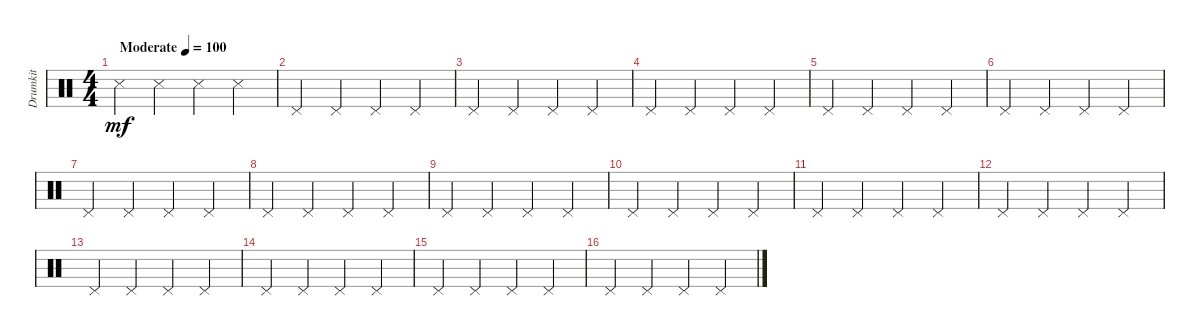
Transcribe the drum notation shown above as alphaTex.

\track ("Drumkit" "Drumkit") {instrument percussion}
\staff {score}
\articulation defaults
\ts (4 4)
\tempo (100 "Moderate")
\clef neutral
\ks c "Snare (side stick) 3".4{dy mf} "Snare (side stick) 3".4 "Snare (side stick) 3".4 "Snare (side stick) 3".4
|
"Pedal Hi-Hat (hit)".4 "Pedal Hi-Hat (hit)".4 "Pedal Hi-Hat (hit)".4 "Pedal Hi-Hat (hit)".4 |
"Pedal Hi-Hat (hit)".4 "Pedal Hi-Hat (hit)".4 "Pedal Hi-Hat (hit)".4 "Pedal Hi-Hat (hit)".4 |
"Pedal Hi-Hat (hit)".4 "Pedal Hi-Hat (hit)".4 "Pedal Hi-Hat (hit)".4 "Pedal Hi-Hat (hit)".4 |
"Pedal Hi-Hat (hit)".4 "Pedal Hi-Hat (hit)".4 "Pedal Hi-Hat (hit)".4 "Pedal Hi-Hat (hit)".4 |
"Pedal Hi-Hat (hit)".4 "Pedal Hi-Hat (hit)".4 "Pedal Hi-Hat (hit)".4 "Pedal Hi-Hat (hit)".4 |
"Pedal Hi-Hat (hit)".4 "Pedal Hi-Hat (hit)".4 "Pedal Hi-Hat (hit)".4 "Pedal Hi-Hat (hit)".4 |
"Pedal Hi-Hat (hit)".4 "Pedal Hi-Hat (hit)".4 "Pedal Hi-Hat (hit)".4 "Pedal Hi-Hat (hit)".4 |
"Pedal Hi-Hat (hit)".4 "Pedal Hi-Hat (hit)".4 "Pedal Hi-Hat (hit)".4 "Pedal Hi-Hat (hit)".4 |
"Pedal Hi-Hat (hit)".4 "Pedal Hi-Hat (hit)".4 "Pedal Hi-Hat (hit)".4 "Pedal Hi-Hat (hit)".4 |
"Pedal Hi-Hat (hit)".4 "Pedal Hi-Hat (hit)".4 "Pedal Hi-Hat (hit)".4 "Pedal Hi-Hat (hit)".4 |
"Pedal Hi-Hat (hit)".4 "Pedal Hi-Hat (hit)".4 "Pedal Hi-Hat (hit)".4 "Pedal Hi-Hat (hit)".4 |
"Pedal Hi-Hat (hit)".4 "Pedal Hi-Hat (hit)".4 "Pedal Hi-Hat (hit)".4 "Pedal Hi-Hat (hit)".4 |
"Pedal Hi-Hat (hit)".4 "Pedal Hi-Hat (hit)".4 "Pedal Hi-Hat (hit)".4 "Pedal Hi-Hat (hit)".4 |
"Pedal Hi-Hat (hit)".4 "Pedal Hi-Hat (hit)".4 "Pedal Hi-Hat (hit)".4 "Pedal Hi-Hat (hit)".4 |
"Pedal Hi-Hat (hit)".4 "Pedal Hi-Hat (hit)".4 "Pedal Hi-Hat (hit)".4 "Pedal Hi-Hat (hit)".4
